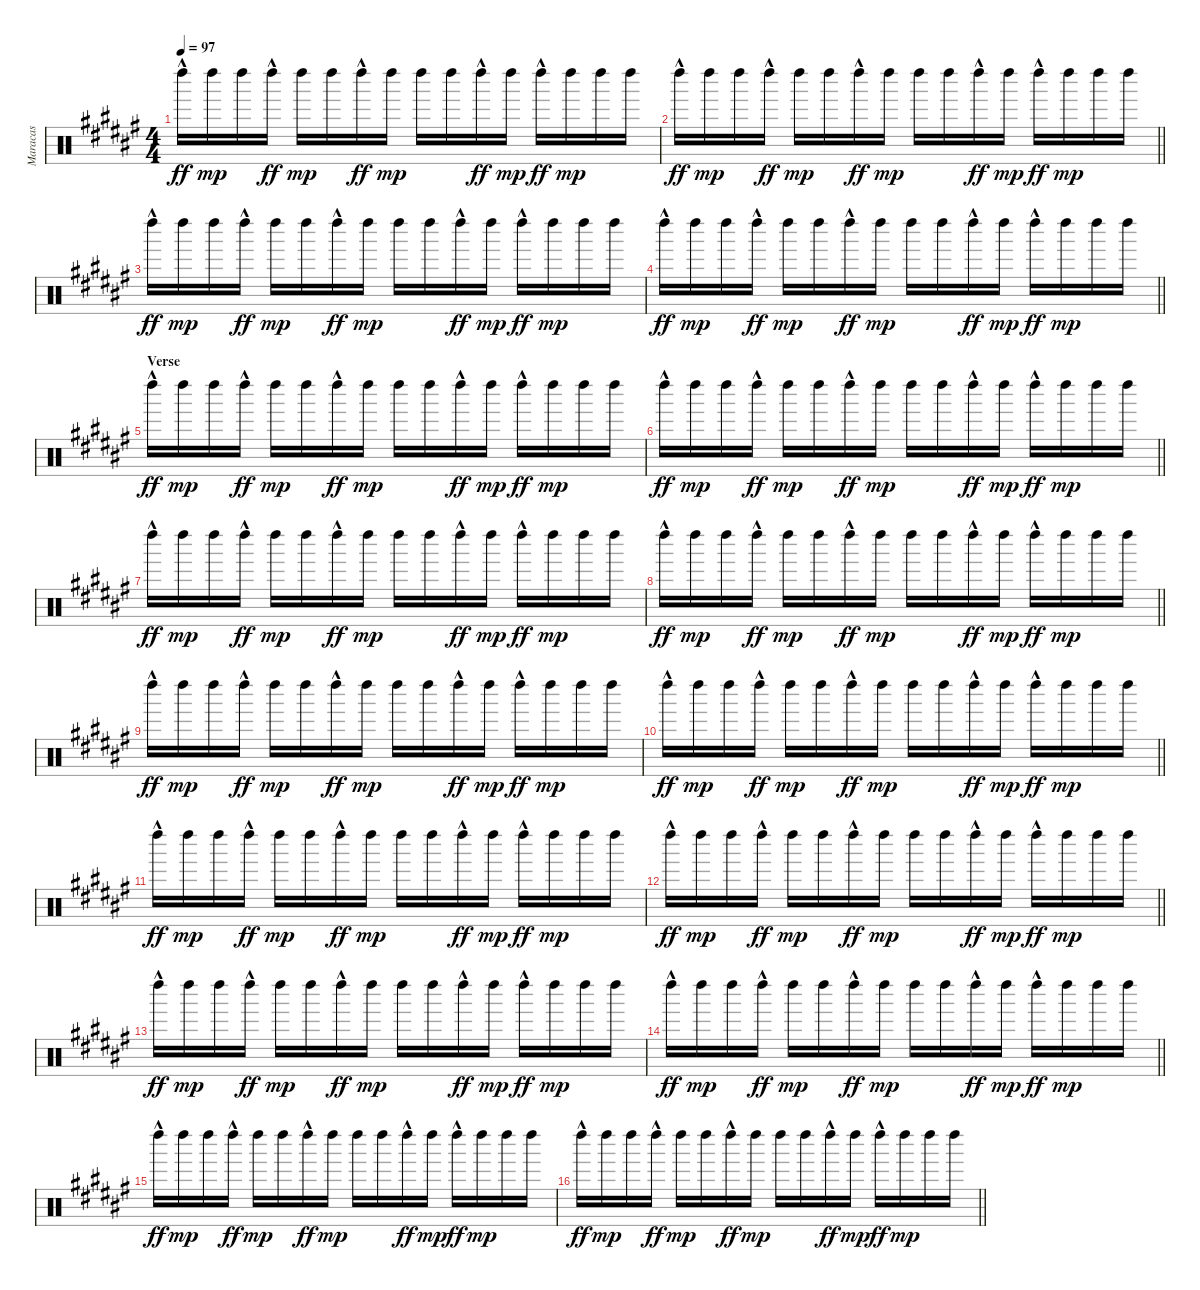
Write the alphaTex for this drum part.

\track ("Maracas" "Maracas") {instrument percussion}
\staff {score}
\articulation defaults
\ts (4 4)
\tempo 97
\clef neutral
\ks f# "Left Maraca (hit)"{hac}.16{dy ff} "Left Maraca (hit)".16{dy mp} "Left Maraca (hit)".16 "Left Maraca (hit)"{hac}.16{dy ff} "Left Maraca (hit)".16{dy mp} "Left Maraca (hit)".16 "Left Maraca (hit)"{hac}.16{dy ff} "Left Maraca (hit)".16{dy mp} "Left Maraca (hit)".16 "Left Maraca (hit)".16 "Left Maraca (hit)"{hac}.16{dy ff} "Left Maraca (hit)".16{dy mp} "Left Maraca (hit)"{hac}.16{dy ff} "Left Maraca (hit)".16{dy mp} "Left Maraca (hit)".16 "Left Maraca (hit)".16
|
\barLineRight lightlight "Left Maraca (hit)"{hac}.16{dy ff} "Left Maraca (hit)".16{dy mp} "Left Maraca (hit)".16 "Left Maraca (hit)"{hac}.16{dy ff} "Left Maraca (hit)".16{dy mp} "Left Maraca (hit)".16 "Left Maraca (hit)"{hac}.16{dy ff} "Left Maraca (hit)".16{dy mp} "Left Maraca (hit)".16 "Left Maraca (hit)".16 "Left Maraca (hit)"{hac}.16{dy ff} "Left Maraca (hit)".16{dy mp} "Left Maraca (hit)"{hac}.16{dy ff} "Left Maraca (hit)".16{dy mp} "Left Maraca (hit)".16 "Left Maraca (hit)".16
|
"Left Maraca (hit)"{hac}.16{dy ff} "Left Maraca (hit)".16{dy mp} "Left Maraca (hit)".16 "Left Maraca (hit)"{hac}.16{dy ff} "Left Maraca (hit)".16{dy mp} "Left Maraca (hit)".16 "Left Maraca (hit)"{hac}.16{dy ff} "Left Maraca (hit)".16{dy mp} "Left Maraca (hit)".16 "Left Maraca (hit)".16 "Left Maraca (hit)"{hac}.16{dy ff} "Left Maraca (hit)".16{dy mp} "Left Maraca (hit)"{hac}.16{dy ff} "Left Maraca (hit)".16{dy mp} "Left Maraca (hit)".16 "Left Maraca (hit)".16 |
\barLineRight lightlight "Left Maraca (hit)"{hac}.16{dy ff} "Left Maraca (hit)".16{dy mp} "Left Maraca (hit)".16 "Left Maraca (hit)"{hac}.16{dy ff} "Left Maraca (hit)".16{dy mp} "Left Maraca (hit)".16 "Left Maraca (hit)"{hac}.16{dy ff} "Left Maraca (hit)".16{dy mp} "Left Maraca (hit)".16 "Left Maraca (hit)".16 "Left Maraca (hit)"{hac}.16{dy ff} "Left Maraca (hit)".16{dy mp} "Left Maraca (hit)"{hac}.16{dy ff} "Left Maraca (hit)".16{dy mp} "Left Maraca (hit)".16 "Left Maraca (hit)".16
|
\section ("" "Verse")
"Left Maraca (hit)"{hac}.16{dy ff} "Left Maraca (hit)".16{dy mp} "Left Maraca (hit)".16 "Left Maraca (hit)"{hac}.16{dy ff} "Left Maraca (hit)".16{dy mp} "Left Maraca (hit)".16 "Left Maraca (hit)"{hac}.16{dy ff} "Left Maraca (hit)".16{dy mp} "Left Maraca (hit)".16 "Left Maraca (hit)".16 "Left Maraca (hit)"{hac}.16{dy ff} "Left Maraca (hit)".16{dy mp} "Left Maraca (hit)"{hac}.16{dy ff} "Left Maraca (hit)".16{dy mp} "Left Maraca (hit)".16 "Left Maraca (hit)".16 |
\barLineRight lightlight "Left Maraca (hit)"{hac}.16{dy ff} "Left Maraca (hit)".16{dy mp} "Left Maraca (hit)".16 "Left Maraca (hit)"{hac}.16{dy ff} "Left Maraca (hit)".16{dy mp} "Left Maraca (hit)".16 "Left Maraca (hit)"{hac}.16{dy ff} "Left Maraca (hit)".16{dy mp} "Left Maraca (hit)".16 "Left Maraca (hit)".16 "Left Maraca (hit)"{hac}.16{dy ff} "Left Maraca (hit)".16{dy mp} "Left Maraca (hit)"{hac}.16{dy ff} "Left Maraca (hit)".16{dy mp} "Left Maraca (hit)".16 "Left Maraca (hit)".16
|
"Left Maraca (hit)"{hac}.16{dy ff} "Left Maraca (hit)".16{dy mp} "Left Maraca (hit)".16 "Left Maraca (hit)"{hac}.16{dy ff} "Left Maraca (hit)".16{dy mp} "Left Maraca (hit)".16 "Left Maraca (hit)"{hac}.16{dy ff} "Left Maraca (hit)".16{dy mp} "Left Maraca (hit)".16 "Left Maraca (hit)".16 "Left Maraca (hit)"{hac}.16{dy ff} "Left Maraca (hit)".16{dy mp} "Left Maraca (hit)"{hac}.16{dy ff} "Left Maraca (hit)".16{dy mp} "Left Maraca (hit)".16 "Left Maraca (hit)".16 |
\barLineRight lightlight "Left Maraca (hit)"{hac}.16{dy ff} "Left Maraca (hit)".16{dy mp} "Left Maraca (hit)".16 "Left Maraca (hit)"{hac}.16{dy ff} "Left Maraca (hit)".16{dy mp} "Left Maraca (hit)".16 "Left Maraca (hit)"{hac}.16{dy ff} "Left Maraca (hit)".16{dy mp} "Left Maraca (hit)".16 "Left Maraca (hit)".16 "Left Maraca (hit)"{hac}.16{dy ff} "Left Maraca (hit)".16{dy mp} "Left Maraca (hit)"{hac}.16{dy ff} "Left Maraca (hit)".16{dy mp} "Left Maraca (hit)".16 "Left Maraca (hit)".16
|
"Left Maraca (hit)"{hac}.16{dy ff} "Left Maraca (hit)".16{dy mp} "Left Maraca (hit)".16 "Left Maraca (hit)"{hac}.16{dy ff} "Left Maraca (hit)".16{dy mp} "Left Maraca (hit)".16 "Left Maraca (hit)"{hac}.16{dy ff} "Left Maraca (hit)".16{dy mp} "Left Maraca (hit)".16 "Left Maraca (hit)".16 "Left Maraca (hit)"{hac}.16{dy ff} "Left Maraca (hit)".16{dy mp} "Left Maraca (hit)"{hac}.16{dy ff} "Left Maraca (hit)".16{dy mp} "Left Maraca (hit)".16 "Left Maraca (hit)".16 |
\barLineRight lightlight "Left Maraca (hit)"{hac}.16{dy ff} "Left Maraca (hit)".16{dy mp} "Left Maraca (hit)".16 "Left Maraca (hit)"{hac}.16{dy ff} "Left Maraca (hit)".16{dy mp} "Left Maraca (hit)".16 "Left Maraca (hit)"{hac}.16{dy ff} "Left Maraca (hit)".16{dy mp} "Left Maraca (hit)".16 "Left Maraca (hit)".16 "Left Maraca (hit)"{hac}.16{dy ff} "Left Maraca (hit)".16{dy mp} "Left Maraca (hit)"{hac}.16{dy ff} "Left Maraca (hit)".16{dy mp} "Left Maraca (hit)".16 "Left Maraca (hit)".16
|
"Left Maraca (hit)"{hac}.16{dy ff} "Left Maraca (hit)".16{dy mp} "Left Maraca (hit)".16 "Left Maraca (hit)"{hac}.16{dy ff} "Left Maraca (hit)".16{dy mp} "Left Maraca (hit)".16 "Left Maraca (hit)"{hac}.16{dy ff} "Left Maraca (hit)".16{dy mp} "Left Maraca (hit)".16 "Left Maraca (hit)".16 "Left Maraca (hit)"{hac}.16{dy ff} "Left Maraca (hit)".16{dy mp} "Left Maraca (hit)"{hac}.16{dy ff} "Left Maraca (hit)".16{dy mp} "Left Maraca (hit)".16 "Left Maraca (hit)".16 |
\barLineRight lightlight "Left Maraca (hit)"{hac}.16{dy ff} "Left Maraca (hit)".16{dy mp} "Left Maraca (hit)".16 "Left Maraca (hit)"{hac}.16{dy ff} "Left Maraca (hit)".16{dy mp} "Left Maraca (hit)".16 "Left Maraca (hit)"{hac}.16{dy ff} "Left Maraca (hit)".16{dy mp} "Left Maraca (hit)".16 "Left Maraca (hit)".16 "Left Maraca (hit)"{hac}.16{dy ff} "Left Maraca (hit)".16{dy mp} "Left Maraca (hit)"{hac}.16{dy ff} "Left Maraca (hit)".16{dy mp} "Left Maraca (hit)".16 "Left Maraca (hit)".16
|
"Left Maraca (hit)"{hac}.16{dy ff} "Left Maraca (hit)".16{dy mp} "Left Maraca (hit)".16 "Left Maraca (hit)"{hac}.16{dy ff} "Left Maraca (hit)".16{dy mp} "Left Maraca (hit)".16 "Left Maraca (hit)"{hac}.16{dy ff} "Left Maraca (hit)".16{dy mp} "Left Maraca (hit)".16 "Left Maraca (hit)".16 "Left Maraca (hit)"{hac}.16{dy ff} "Left Maraca (hit)".16{dy mp} "Left Maraca (hit)"{hac}.16{dy ff} "Left Maraca (hit)".16{dy mp} "Left Maraca (hit)".16 "Left Maraca (hit)".16 |
\barLineRight lightlight "Left Maraca (hit)"{hac}.16{dy ff} "Left Maraca (hit)".16{dy mp} "Left Maraca (hit)".16 "Left Maraca (hit)"{hac}.16{dy ff} "Left Maraca (hit)".16{dy mp} "Left Maraca (hit)".16 "Left Maraca (hit)"{hac}.16{dy ff} "Left Maraca (hit)".16{dy mp} "Left Maraca (hit)".16 "Left Maraca (hit)".16 "Left Maraca (hit)"{hac}.16{dy ff} "Left Maraca (hit)".16{dy mp} "Left Maraca (hit)"{hac}.16{dy ff} "Left Maraca (hit)".16{dy mp} "Left Maraca (hit)".16 "Left Maraca (hit)".16
|
"Left Maraca (hit)"{hac}.16{dy ff} "Left Maraca (hit)".16{dy mp} "Left Maraca (hit)".16 "Left Maraca (hit)"{hac}.16{dy ff} "Left Maraca (hit)".16{dy mp} "Left Maraca (hit)".16 "Left Maraca (hit)"{hac}.16{dy ff} "Left Maraca (hit)".16{dy mp} "Left Maraca (hit)".16 "Left Maraca (hit)".16 "Left Maraca (hit)"{hac}.16{dy ff} "Left Maraca (hit)".16{dy mp} "Left Maraca (hit)"{hac}.16{dy ff} "Left Maraca (hit)".16{dy mp} "Left Maraca (hit)".16 "Left Maraca (hit)".16 |
\barLineRight lightlight "Left Maraca (hit)"{hac}.16{dy ff} "Left Maraca (hit)".16{dy mp} "Left Maraca (hit)".16 "Left Maraca (hit)"{hac}.16{dy ff} "Left Maraca (hit)".16{dy mp} "Left Maraca (hit)".16 "Left Maraca (hit)"{hac}.16{dy ff} "Left Maraca (hit)".16{dy mp} "Left Maraca (hit)".16 "Left Maraca (hit)".16 "Left Maraca (hit)"{hac}.16{dy ff} "Left Maraca (hit)".16{dy mp} "Left Maraca (hit)"{hac}.16{dy ff} "Left Maraca (hit)".16{dy mp} "Left Maraca (hit)".16 "Left Maraca (hit)".16
